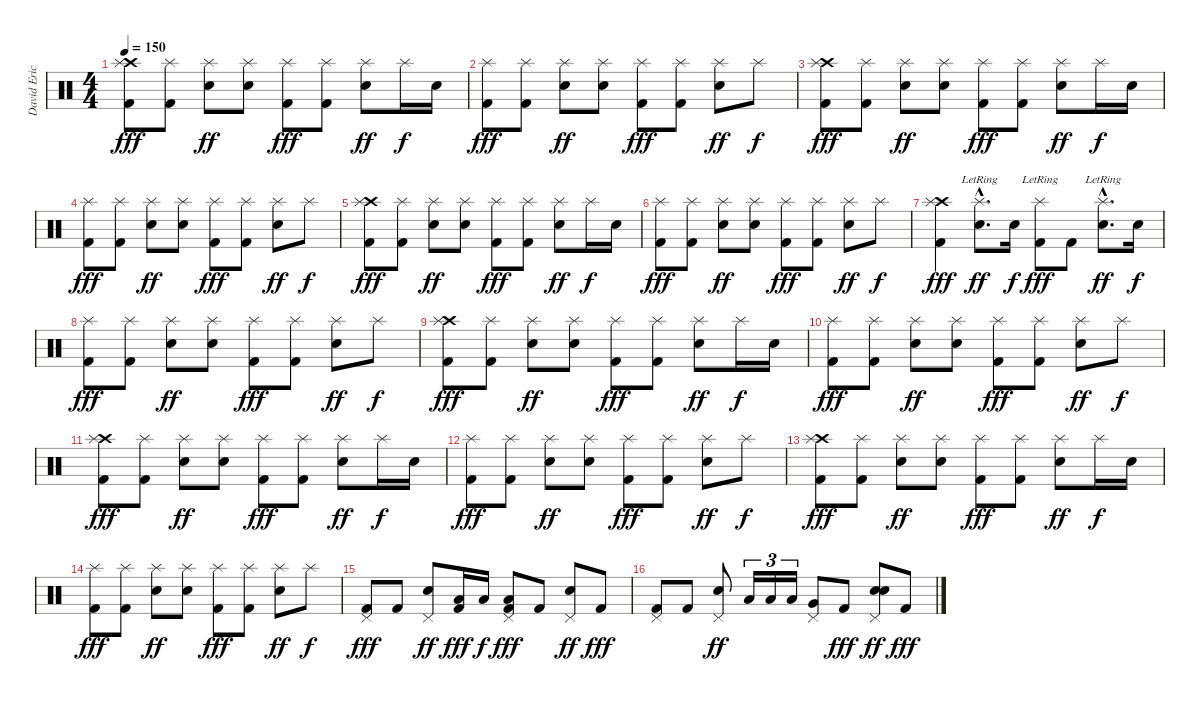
\track ("David Eric Grohl" "David Eric") {instrument percussion}
\staff {score}
\articulation defaults
\ts (4 4)
\tempo 150
\clef neutral
\ks c
("Crash high (hit)" "Splash (hit)" "Kick (hit) 2").8{dy fff} ("Splash (hit)" "Kick (hit) 2").8 ("Splash (hit)" "Electric Snare (hit)").8{dy ff} ("Splash (hit)" "Electric Snare (hit)").8 ("Splash (hit)" "Kick (hit) 2").8{dy fff} ("Splash (hit)" "Kick (hit) 2").8 ("Splash (hit)" "Electric Snare (hit)").8{dy ff} "Splash (hit)".16{dy f} "Electric Snare (hit)".16 |
("Splash (hit)" "Kick (hit) 2").8{dy fff} ("Splash (hit)" "Kick (hit) 2").8 ("Splash (hit)" "Electric Snare (hit)").8{dy ff} ("Splash (hit)" "Electric Snare (hit)").8 ("Splash (hit)" "Kick (hit) 2").8{dy fff} ("Splash (hit)" "Kick (hit) 2").8 ("Splash (hit)" "Electric Snare (hit)").8{dy ff} "Splash (hit)".8{dy f} |
("Crash high (hit)" "Splash (hit)" "Kick (hit) 2").8{dy fff} ("Splash (hit)" "Kick (hit) 2").8 ("Splash (hit)" "Electric Snare (hit)").8{dy ff} ("Splash (hit)" "Electric Snare (hit)").8 ("Splash (hit)" "Kick (hit) 2").8{dy fff} ("Splash (hit)" "Kick (hit) 2").8 ("Splash (hit)" "Electric Snare (hit)").8{dy ff} "Splash (hit)".16{dy f} "Electric Snare (hit)".16 |
("Splash (hit)" "Kick (hit) 2").8{dy fff} ("Splash (hit)" "Kick (hit) 2").8 ("Splash (hit)" "Electric Snare (hit)").8{dy ff} ("Splash (hit)" "Electric Snare (hit)").8 ("Splash (hit)" "Kick (hit) 2").8{dy fff} ("Splash (hit)" "Kick (hit) 2").8 ("Splash (hit)" "Electric Snare (hit)").8{dy ff} "Splash (hit)".8{dy f} |
("Crash high (hit)" "Splash (hit)" "Kick (hit) 2").8{dy fff} ("Splash (hit)" "Kick (hit) 2").8 ("Splash (hit)" "Electric Snare (hit)").8{dy ff} ("Splash (hit)" "Electric Snare (hit)").8 ("Splash (hit)" "Kick (hit) 2").8{dy fff} ("Splash (hit)" "Kick (hit) 2").8 ("Splash (hit)" "Electric Snare (hit)").8{dy ff} "Splash (hit)".16{dy f} "Electric Snare (hit)".16 |
("Splash (hit)" "Kick (hit) 2").8{dy fff} ("Splash (hit)" "Kick (hit) 2").8 ("Splash (hit)" "Electric Snare (hit)").8{dy ff} ("Splash (hit)" "Electric Snare (hit)").8 ("Splash (hit)" "Kick (hit) 2").8{dy fff} ("Splash (hit)" "Kick (hit) 2").8 ("Splash (hit)" "Electric Snare (hit)").8{dy ff} "Splash (hit)".8{dy f} |
("Crash high (hit)" "Splash (hit)" "Kick (hit) 2").4{dy fff} ("Splash (hit)"{hac lr} "Electric Snare (hit)"{hac}).8{d dy ff} "Electric Snare (hit)".16{dy f} ("Splash (hit)"{lr} "Kick (hit) 2").8{dy fff} "Kick (hit) 2".8 ("Splash (hit)"{hac lr} "Electric Snare (hit)"{hac}).8{d dy ff} "Electric Snare (hit)".16{dy f} |
("Splash (hit)" "Kick (hit) 2").8{dy fff} ("Splash (hit)" "Kick (hit) 2").8 ("Splash (hit)" "Electric Snare (hit)").8{dy ff} ("Splash (hit)" "Electric Snare (hit)").8 ("Splash (hit)" "Kick (hit) 2").8{dy fff} ("Splash (hit)" "Kick (hit) 2").8 ("Splash (hit)" "Electric Snare (hit)").8{dy ff} "Splash (hit)".8{dy f} |
("Crash high (hit)" "Splash (hit)" "Kick (hit) 2").8{dy fff} ("Splash (hit)" "Kick (hit) 2").8 ("Splash (hit)" "Electric Snare (hit)").8{dy ff} ("Splash (hit)" "Electric Snare (hit)").8 ("Splash (hit)" "Kick (hit) 2").8{dy fff} ("Splash (hit)" "Kick (hit) 2").8 ("Splash (hit)" "Electric Snare (hit)").8{dy ff} "Splash (hit)".16{dy f} "Electric Snare (hit)".16 |
("Splash (hit)" "Kick (hit) 2").8{dy fff} ("Splash (hit)" "Kick (hit) 2").8 ("Splash (hit)" "Electric Snare (hit)").8{dy ff} ("Splash (hit)" "Electric Snare (hit)").8 ("Splash (hit)" "Kick (hit) 2").8{dy fff} ("Splash (hit)" "Kick (hit) 2").8 ("Splash (hit)" "Electric Snare (hit)").8{dy ff} "Splash (hit)".8{dy f} |
("Crash high (hit)" "Splash (hit)" "Kick (hit) 2").8{dy fff} ("Splash (hit)" "Kick (hit) 2").8 ("Splash (hit)" "Electric Snare (hit)").8{dy ff} ("Splash (hit)" "Electric Snare (hit)").8 ("Splash (hit)" "Kick (hit) 2").8{dy fff} ("Splash (hit)" "Kick (hit) 2").8 ("Splash (hit)" "Electric Snare (hit)").8{dy ff} "Splash (hit)".16{dy f} "Electric Snare (hit)".16 |
("Splash (hit)" "Kick (hit) 2").8{dy fff} ("Splash (hit)" "Kick (hit) 2").8 ("Splash (hit)" "Electric Snare (hit)").8{dy ff} ("Splash (hit)" "Electric Snare (hit)").8 ("Splash (hit)" "Kick (hit) 2").8{dy fff} ("Splash (hit)" "Kick (hit) 2").8 ("Splash (hit)" "Electric Snare (hit)").8{dy ff} "Splash (hit)".8{dy f} |
("Crash high (hit)" "Splash (hit)" "Kick (hit) 2").8{dy fff} ("Splash (hit)" "Kick (hit) 2").8 ("Splash (hit)" "Electric Snare (hit)").8{dy ff} ("Splash (hit)" "Electric Snare (hit)").8 ("Splash (hit)" "Kick (hit) 2").8{dy fff} ("Splash (hit)" "Kick (hit) 2").8 ("Splash (hit)" "Electric Snare (hit)").8{dy ff} "Splash (hit)".16{dy f} "Electric Snare (hit)".16 |
("Splash (hit)" "Kick (hit) 2").8{dy fff} ("Splash (hit)" "Kick (hit) 2").8 ("Splash (hit)" "Electric Snare (hit)").8{dy ff} ("Splash (hit)" "Electric Snare (hit)").8 ("Splash (hit)" "Kick (hit) 2").8{dy fff} ("Splash (hit)" "Kick (hit) 2").8 ("Splash (hit)" "Electric Snare (hit)").8{dy ff} "Splash (hit)".8{dy f} |
("Pedal Hi-Hat (hit)" "Kick (hit) 2").8{dy fff} "Kick (hit) 2".8 ("Pedal Hi-Hat (hit)" "Electric Snare (hit)").8{dy ff} ("Low Tom (hit)" "Kick (hit) 2").16{dy fff} "Low Tom (hit)".16{dy f} ("Pedal Hi-Hat (hit)" "Low Tom (hit)" "Kick (hit) 2").8{dy fff} "Kick (hit) 2".8 ("Pedal Hi-Hat (hit)" "Electric Snare (hit)").8{dy ff} "Kick (hit) 2".8{dy fff} |
("Pedal Hi-Hat (hit)" "Kick (hit) 2").8 "Kick (hit) 2".8 ("Pedal Hi-Hat (hit)" "Electric Snare (hit)").8{dy ff} "Low Tom (hit)".16{tu (3 2)} "Low Tom (hit)".16{tu (3 2)} "Low Tom (hit)".16{tu (3 2)} ("Pedal Hi-Hat (hit)" "Very Low Tom (hit)").8 "Kick (hit) 2".8{dy fff} ("Pedal Hi-Hat (hit)" "Electric Snare (hit)" "Electric Snare (hit)").8{dy ff} "Kick (hit) 2".8{dy fff}
